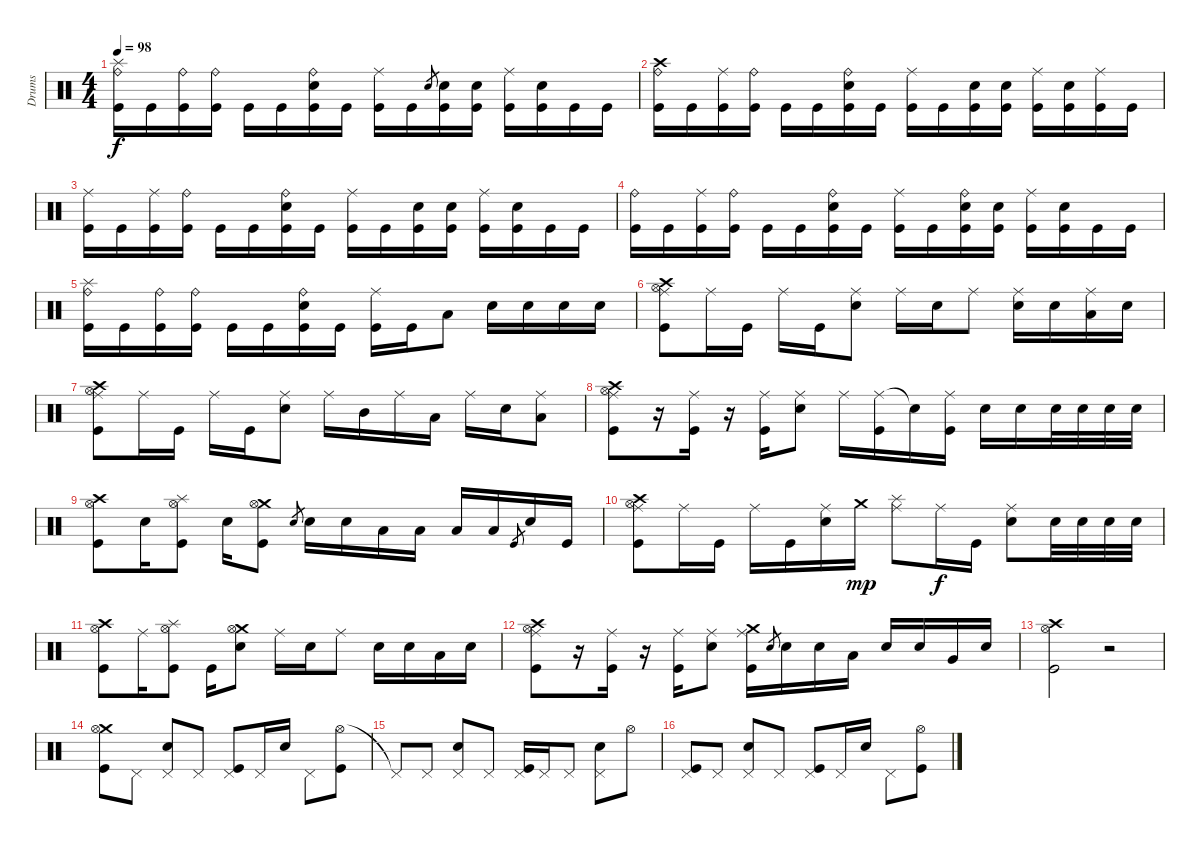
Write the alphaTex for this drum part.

\track ("Drums" "Drums") {instrument percussion}
\staff {score}
\articulation defaults
\ts (4 4)
\tempo 98
\clef neutral
\ks aminor
("Splash (hit)" "Ride (bell)" "Kick (hit)").16{dy f} "Kick (hit)".16 ("Ride (bell)" "Kick (hit)").16 ("Ride (bell)" "Kick (hit)").16 "Kick (hit)".16 "Kick (hit)".16 ("Ride (bell)" "Electric Snare (hit)" "Kick (hit)").16 "Kick (hit)".16 ("Ride (middle)" "Kick (hit)").16 "Kick (hit)".16 "Electric Snare (hit)".8{gr} ("Electric Snare (hit)" "Kick (hit)").16 ("Electric Snare (hit)" "Kick (hit)").16 ("Ride (middle)" "Kick (hit)").16 ("Electric Snare (hit)" "Kick (hit)").16 "Kick (hit)".16 "Kick (hit)".16 |
("Crash high (hit)" "Ride (bell)" "Kick (hit)").16 "Kick (hit)".16 ("Ride (middle)" "Kick (hit)").16 ("Ride (bell)" "Kick (hit)").16 "Kick (hit)".16 "Kick (hit)".16 ("Ride (bell)" "Electric Snare (hit)" "Kick (hit)").16 "Kick (hit)".16 ("Ride (middle)" "Kick (hit)").16 "Kick (hit)".16 ("Electric Snare (hit)" "Kick (hit)").16 ("Electric Snare (hit)" "Kick (hit)").16 ("Ride (middle)" "Kick (hit)").16 ("Electric Snare (hit)" "Kick (hit)").16 ("Ride (middle)" "Kick (hit)").16 "Kick (hit)".16 |
("Ride (middle)" "Kick (hit)").16 "Kick (hit)".16 ("Ride (middle)" "Kick (hit)").16 ("Ride (bell)" "Kick (hit)").16 "Kick (hit)".16 "Kick (hit)".16 ("Ride (bell)" "Electric Snare (hit)" "Kick (hit)").16 "Kick (hit)".16 ("Ride (middle)" "Kick (hit)").16 "Kick (hit)".16 ("Electric Snare (hit)" "Kick (hit)").16 ("Electric Snare (hit)" "Kick (hit)").16 ("Ride (middle)" "Kick (hit)").16 ("Electric Snare (hit)" "Kick (hit)").16 "Kick (hit)".16 "Kick (hit)".16 |
("Ride (bell)" "Kick (hit)").16 "Kick (hit)".16 ("Ride (middle)" "Kick (hit)").16 ("Ride (bell)" "Kick (hit)").16 "Kick (hit)".16 "Kick (hit)".16 ("Ride (bell)" "Electric Snare (hit)" "Kick (hit)").16 "Kick (hit)".16 ("Ride (middle)" "Kick (hit)").16 "Kick (hit)".16 ("Ride (bell)" "Electric Snare (hit)" "Kick (hit)").16 ("Electric Snare (hit)" "Kick (hit)").16 ("Ride (middle)" "Kick (hit)").16 ("Electric Snare (hit)" "Kick (hit)").16 "Kick (hit)".16 "Kick (hit)".16 |
("Splash (hit)" "Ride (bell)" "Kick (hit)").16 "Kick (hit)".16 ("Ride (bell)" "Kick (hit)").16 ("Ride (bell)" "Kick (hit)").16 "Kick (hit)".16 "Kick (hit)".16 ("Ride (bell)" "Electric Snare (hit)" "Kick (hit)").16 "Kick (hit)".16 ("Ride (middle)" "Kick (hit)").16 "Kick (hit)".16 "Low Tom (hit)".8 "Electric Snare (hit)".16 "Electric Snare (hit)".16 "Electric Snare (hit)".16 "Electric Snare (hit)".16 |
("Ride (middle)" "Crash high (hit)" "Hi-Hat (open)" "Kick (hit)").8 "Ride (middle)".16 "Kick (hit)".16 "Ride (middle)".16 "Kick (hit)".16 ("Ride (middle)" "Electric Snare (hit)").8 "Ride (middle)".16 "Electric Snare (hit)".16 "Ride (middle)".8 ("Ride (middle)" "Electric Snare (hit)").16 "Electric Snare (hit)".16 ("Ride (middle)" "Low Tom (hit)").16 "Electric Snare (hit)".16 |
("Ride (middle)" "Crash high (hit)" "Hi-Hat (open)" "Kick (hit)").8 "Ride (middle)".16 "Kick (hit)".16 "Ride (middle)".16 "Kick (hit)".16 ("Ride (middle)" "Electric Snare (hit)").8 "Ride (middle)".16 "Mid Tom (hit)".16 "Ride (middle)".16 "Low Tom (hit)".16 "Ride (middle)".16 "Electric Snare (hit)".16 ("Ride (middle)" "Low Tom (hit)").8 |
("Ride (middle)" "Crash high (hit)" "Hi-Hat (open)" "Kick (hit)").8 r.16 ("Ride (middle)" "Kick (hit)").16 r.16 ("Ride (middle)" "Kick (hit)").16 ("Ride (middle)" "Electric Snare (hit)").8 "Ride (middle)".16 ("Ride (middle)" "Kick (hit)").16 "Snare (hit)"{t}.16 ("Ride (middle)" "Kick (hit)").16 "Electric Snare (hit)".16 "Electric Snare (hit)".16 "Electric Snare (hit)".32 "Electric Snare (hit)".32 "Electric Snare (hit)".32 "Electric Snare (hit)".32 |
("Crash high (hit)" "Hi-Hat (open)" "Kick (hit)").8 "Electric Snare (hit)".16 ("Splash (hit)" "Hi-Hat (open)" "Kick (hit)").8 "Electric Snare (hit)".16 ("Crash medium (hit)" "Hi-Hat (open)" "Kick (hit)").8 "Electric Snare (hit)".8{gr} "Electric Snare (hit)".16 "Electric Snare (hit)".16 "Low Tom (hit)".16 "Low Tom (hit)".16 "Low Tom (hit)".16 "Low Tom (hit)".16 "Kick (hit)".8{gr} "Electric Snare (hit)".16 "Kick (hit)".16 |
("Ride (middle)" "Crash high (hit)" "Hi-Hat (open)" "Kick (hit)").8 "Ride (middle)".16 "Kick (hit)".16 "Ride (middle)".16 "Kick (hit)".16 ("Ride (middle)" "Electric Snare (hit)").16 "Crash medium (hit)".16{dy mp} ("Ride (middle)" "Splash (hit)").8 "Ride (middle)".16{dy f} "Kick (hit)".16 ("Ride (middle)" "Electric Snare (hit)").8 "Electric Snare (hit)".32 "Electric Snare (hit)".32 "Electric Snare (hit)".32 "Electric Snare (hit)".32 |
("Crash high (hit)" "Hi-Hat (open)" "Kick (hit)").8 "Ride (middle)".16 ("Splash (hit)" "Hi-Hat (open)" "Kick (hit)").8 "Kick (hit)".16 ("Crash medium (hit)" "Hi-Hat (open)" "Electric Snare (hit)").8 "Ride (middle)".16 "Electric Snare (hit)".16 "Ride (middle)".8 "Electric Snare (hit)".16 "Electric Snare (hit)".16 "Low Tom (hit)".16 "Electric Snare (hit)".16 |
("Ride (middle)" "Crash high (hit)" "Hi-Hat (open)" "Kick (hit)").8 r.16 ("Ride (middle)" "Kick (hit)").16 r.16 ("Ride (middle)" "Kick (hit)").16 ("Ride (middle)" "Electric Snare (hit)").8 ("Crash medium (hit)" "Ride (middle)" "Kick (hit)").16 "Electric Snare (hit)".8{gr} "Electric Snare (hit)".16 "Electric Snare (hit)".16 "Low Tom (hit)".16 "Electric Snare (hit)".16 "Electric Snare (hit)".16 "Very Low Tom (hit)".16 "Electric Snare (hit)".16 |
("Crash high (hit)" "Hi-Hat (open)" "Kick (hit)").2 r.2 |
("Crash medium (hit)" "Hi-Hat (open)" "Kick (hit)").8 "Pedal Hi-Hat (hit)".8 ("Pedal Hi-Hat (hit)" "Electric Snare (hit)").8 "Pedal Hi-Hat (hit)".8 ("Pedal Hi-Hat (hit)" "Kick (hit)").8 "Pedal Hi-Hat (hit)".16 "Electric Snare (hit)".16 "Pedal Hi-Hat (hit)".8 ("Hi-Hat (open)" "Kick (hit)").8 |
"Pedal Hi-Hat (hit)"{t}.8 "Pedal Hi-Hat (hit)".8 ("Pedal Hi-Hat (hit)" "Electric Snare (hit)").8 "Pedal Hi-Hat (hit)".8 ("Pedal Hi-Hat (hit)" "Kick (hit)").16 "Pedal Hi-Hat (hit)".16 "Pedal Hi-Hat (hit)".8 ("Pedal Hi-Hat (hit)" "Electric Snare (hit)").8 "Hi-Hat (open)".8 |
("Pedal Hi-Hat (hit)" "Kick (hit)").8 "Pedal Hi-Hat (hit)".8 ("Pedal Hi-Hat (hit)" "Electric Snare (hit)").8 "Pedal Hi-Hat (hit)".8 ("Pedal Hi-Hat (hit)" "Kick (hit)").8 "Pedal Hi-Hat (hit)".16 "Electric Snare (hit)".16 "Pedal Hi-Hat (hit)".8 ("Hi-Hat (open)" "Kick (hit)").8
